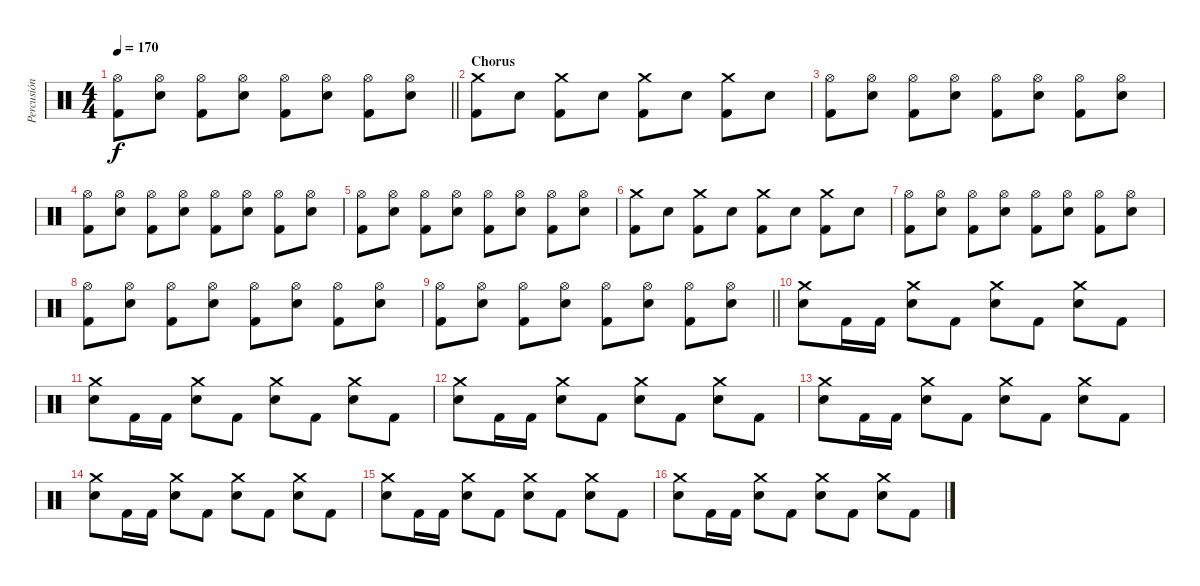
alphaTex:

\track ("Percusión" "Percusión") {instrument percussion}
\staff {score}
\articulation defaults
\ts (4 4)
\tempo 170
\clef neutral
\barLineRight lightlight
\ks c
("Hi-Hat (open)" "Kick (hit) 2").8{dy f} ("Hi-Hat (open)" "Snare (hit) 2").8 ("Hi-Hat (open)" "Kick (hit) 2").8 ("Hi-Hat (open)" "Snare (hit) 2").8 ("Hi-Hat (open)" "Kick (hit) 2").8 ("Hi-Hat (open)" "Snare (hit) 2").8 ("Hi-Hat (open)" "Kick (hit) 2").8 ("Hi-Hat (open)" "Snare (hit) 2").8 |
\section ("" "Chorus")
("Crash medium (hit)" "Kick (hit) 2").8 "Snare (hit) 2".8 ("Crash medium (hit)" "Kick (hit) 2").8 "Snare (hit) 2".8 ("Crash medium (hit)" "Kick (hit) 2").8 "Snare (hit) 2".8 ("Crash medium (hit)" "Kick (hit) 2").8 "Snare (hit) 2".8 |
("Hi-Hat (open)" "Kick (hit) 2").8 ("Hi-Hat (open)" "Snare (hit) 2").8 ("Hi-Hat (open)" "Kick (hit) 2").8 ("Hi-Hat (open)" "Snare (hit) 2").8 ("Hi-Hat (open)" "Kick (hit) 2").8 ("Hi-Hat (open)" "Snare (hit) 2").8 ("Hi-Hat (open)" "Kick (hit) 2").8 ("Hi-Hat (open)" "Snare (hit) 2").8 |
("Hi-Hat (open)" "Kick (hit) 2").8 ("Hi-Hat (open)" "Snare (hit) 2").8 ("Hi-Hat (open)" "Kick (hit) 2").8 ("Hi-Hat (open)" "Snare (hit) 2").8 ("Hi-Hat (open)" "Kick (hit) 2").8 ("Hi-Hat (open)" "Snare (hit) 2").8 ("Hi-Hat (open)" "Kick (hit) 2").8 ("Hi-Hat (open)" "Snare (hit) 2").8 |
("Hi-Hat (open)" "Kick (hit) 2").8 ("Hi-Hat (open)" "Snare (hit) 2").8 ("Hi-Hat (open)" "Kick (hit) 2").8 ("Hi-Hat (open)" "Snare (hit) 2").8 ("Hi-Hat (open)" "Kick (hit) 2").8 ("Hi-Hat (open)" "Snare (hit) 2").8 ("Hi-Hat (open)" "Kick (hit) 2").8 ("Hi-Hat (open)" "Snare (hit) 2").8 |
("Crash medium (hit)" "Kick (hit) 2").8 "Snare (hit) 2".8 ("Crash medium (hit)" "Kick (hit) 2").8 "Snare (hit) 2".8 ("Crash medium (hit)" "Kick (hit) 2").8 "Snare (hit) 2".8 ("Crash medium (hit)" "Kick (hit) 2").8 "Snare (hit) 2".8 |
("Hi-Hat (open)" "Kick (hit) 2").8 ("Hi-Hat (open)" "Snare (hit) 2").8 ("Hi-Hat (open)" "Kick (hit) 2").8 ("Hi-Hat (open)" "Snare (hit) 2").8 ("Hi-Hat (open)" "Kick (hit) 2").8 ("Hi-Hat (open)" "Snare (hit) 2").8 ("Hi-Hat (open)" "Kick (hit) 2").8 ("Hi-Hat (open)" "Snare (hit) 2").8 |
("Hi-Hat (open)" "Kick (hit) 2").8 ("Hi-Hat (open)" "Snare (hit) 2").8 ("Hi-Hat (open)" "Kick (hit) 2").8 ("Hi-Hat (open)" "Snare (hit) 2").8 ("Hi-Hat (open)" "Kick (hit) 2").8 ("Hi-Hat (open)" "Snare (hit) 2").8 ("Hi-Hat (open)" "Kick (hit) 2").8 ("Hi-Hat (open)" "Snare (hit) 2").8 |
\barLineRight lightlight
("Hi-Hat (open)" "Kick (hit) 2").8 ("Hi-Hat (open)" "Snare (hit) 2").8 ("Hi-Hat (open)" "Kick (hit) 2").8 ("Hi-Hat (open)" "Snare (hit) 2").8 ("Hi-Hat (open)" "Kick (hit) 2").8 ("Hi-Hat (open)" "Snare (hit) 2").8 ("Hi-Hat (open)" "Kick (hit) 2").8 ("Hi-Hat (open)" "Snare (hit) 2").8 |
("Crash medium (hit)" "Snare (hit) 2").8 "Kick (hit) 2".16 "Kick (hit) 2".16 ("Crash medium (hit)" "Snare (hit) 2").8 "Kick (hit) 2".8 ("Crash medium (hit)" "Snare (hit) 2").8 "Kick (hit) 2".8 ("Crash medium (hit)" "Snare (hit) 2").8 "Kick (hit) 2".8 |
("Crash medium (hit)" "Snare (hit) 2").8 "Kick (hit) 2".16 "Kick (hit) 2".16 ("Crash medium (hit)" "Snare (hit) 2").8 "Kick (hit) 2".8 ("Crash medium (hit)" "Snare (hit) 2").8 "Kick (hit) 2".8 ("Crash medium (hit)" "Snare (hit) 2").8 "Kick (hit) 2".8 |
("Crash medium (hit)" "Snare (hit) 2").8 "Kick (hit) 2".16 "Kick (hit) 2".16 ("Crash medium (hit)" "Snare (hit) 2").8 "Kick (hit) 2".8 ("Crash medium (hit)" "Snare (hit) 2").8 "Kick (hit) 2".8 ("Crash medium (hit)" "Snare (hit) 2").8 "Kick (hit) 2".8 |
("Crash medium (hit)" "Snare (hit) 2").8 "Kick (hit) 2".16 "Kick (hit) 2".16 ("Crash medium (hit)" "Snare (hit) 2").8 "Kick (hit) 2".8 ("Crash medium (hit)" "Snare (hit) 2").8 "Kick (hit) 2".8 ("Crash medium (hit)" "Snare (hit) 2").8 "Kick (hit) 2".8 |
("Crash medium (hit)" "Snare (hit) 2").8 "Kick (hit) 2".16 "Kick (hit) 2".16 ("Crash medium (hit)" "Snare (hit) 2").8 "Kick (hit) 2".8 ("Crash medium (hit)" "Snare (hit) 2").8 "Kick (hit) 2".8 ("Crash medium (hit)" "Snare (hit) 2").8 "Kick (hit) 2".8 |
("Crash medium (hit)" "Snare (hit) 2").8 "Kick (hit) 2".16 "Kick (hit) 2".16 ("Crash medium (hit)" "Snare (hit) 2").8 "Kick (hit) 2".8 ("Crash medium (hit)" "Snare (hit) 2").8 "Kick (hit) 2".8 ("Crash medium (hit)" "Snare (hit) 2").8 "Kick (hit) 2".8 |
("Crash medium (hit)" "Snare (hit) 2").8 "Kick (hit) 2".16 "Kick (hit) 2".16 ("Crash medium (hit)" "Snare (hit) 2").8 "Kick (hit) 2".8 ("Crash medium (hit)" "Snare (hit) 2").8 "Kick (hit) 2".8 ("Crash medium (hit)" "Snare (hit) 2").8 "Kick (hit) 2".8
